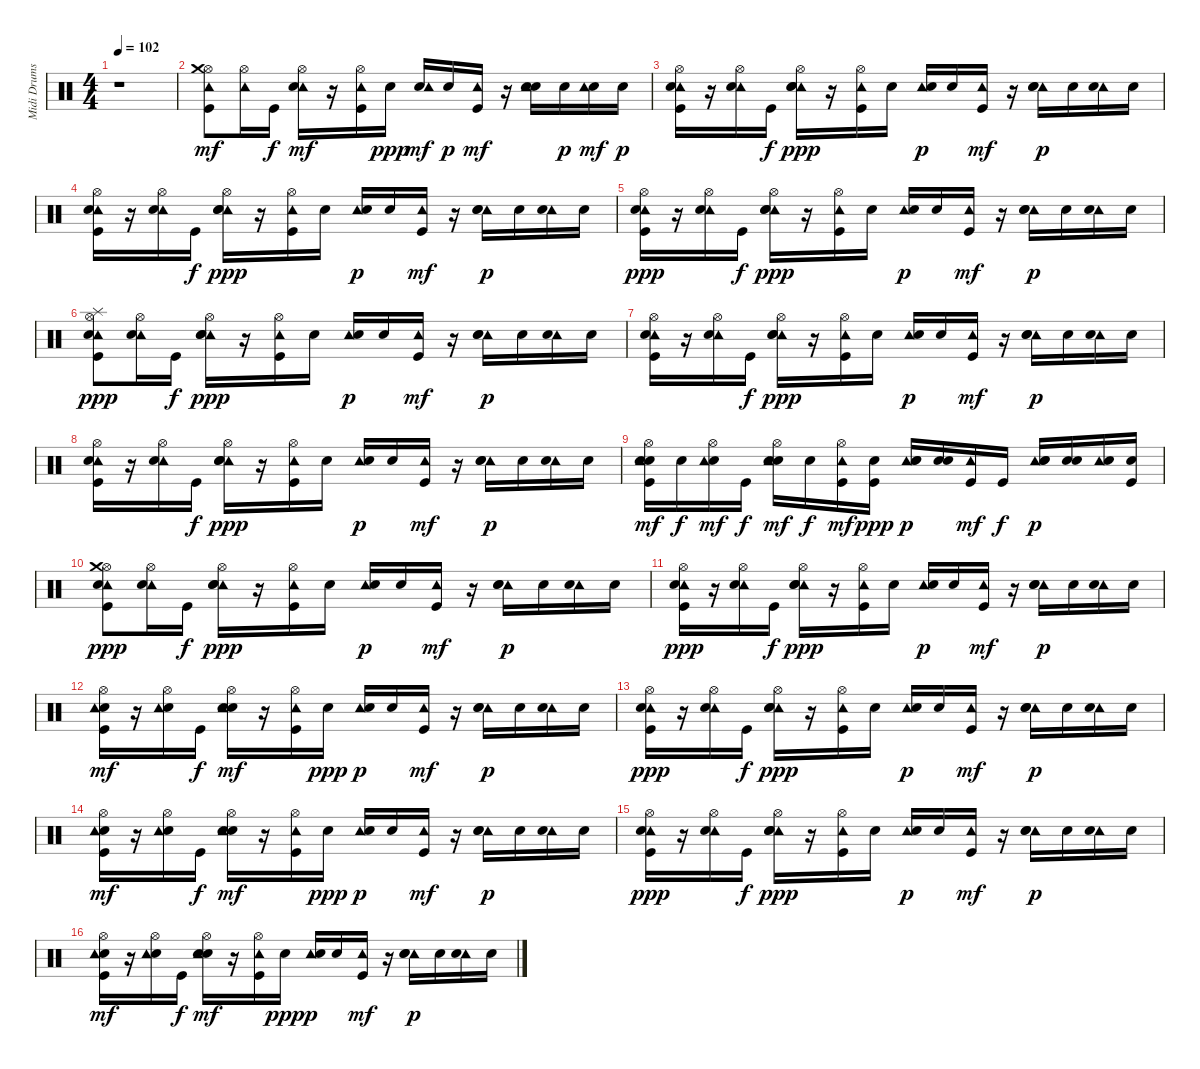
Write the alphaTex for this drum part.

\track ("Midi Drums" "Midi Drums") {instrument percussion}
\staff {score}
\articulation defaults
\ts (4 4)
\tempo 102
\clef neutral
\ks c
r.1{dy mf} |
("Hi-Hat (open)" "Tambourine (hit)" "Crash medium (hit)" "Kick (hit)").8 ("Hi-Hat (open)" "Tambourine (hit)").16 "Kick (hit)".16{dy f} ("Hi-Hat (open)" "Tambourine (hit)" "Snare (hit) 2").16{dy mf} r.16 ("Hi-Hat (open)" "Tambourine (hit)" "Kick (hit)").16 "Electric Snare (hit)".16{dy ppp} ("Electric Snare (hit)" "Tambourine (hit)").16{dy mf} "Electric Snare (hit)".16{dy p} ("Tambourine (hit)" "Kick (hit)").16{dy mf} r.16 ("Electric Snare (hit)" "Snare (hit) 2" "Tambourine (hit)").16 "Electric Snare (hit)".16{dy p} ("Electric Snare (hit)" "Tambourine (hit)").16{dy mf} "Electric Snare (hit)".16{dy p} |
("Tambourine (hit)" "Kick (hit)" "Hi-Hat (open)" "Electric Snare (hit)").16 r.16 ("Tambourine (hit)" "Hi-Hat (open)" "Electric Snare (hit)").16 "Kick (hit)".16{dy f} ("Tambourine (hit)" "Snare (hit) 2" "Hi-Hat (open)" "Electric Snare (hit)").16{dy ppp} r.16 ("Tambourine (hit)" "Kick (hit)" "Hi-Hat (open)").16 "Electric Snare (hit)".16 ("Tambourine (hit)" "Electric Snare (hit)").16{dy p} "Electric Snare (hit)".16 ("Tambourine (hit)" "Kick (hit)").16{dy mf} r.16 ("Tambourine (hit)" "Electric Snare (hit)" "Snare (hit) 2").16{dy p} "Electric Snare (hit)".16 ("Tambourine (hit)" "Electric Snare (hit)").16 "Electric Snare (hit)".16 |
("Tambourine (hit)" "Hi-Hat (open)" "Electric Snare (hit)" "Kick (hit)").16 r.16 ("Tambourine (hit)" "Hi-Hat (open)" "Electric Snare (hit)").16 "Kick (hit)".16{dy f} ("Tambourine (hit)" "Hi-Hat (open)" "Electric Snare (hit)" "Snare (hit) 2").16{dy ppp} r.16 ("Tambourine (hit)" "Hi-Hat (open)" "Kick (hit)").16 "Electric Snare (hit)".16 ("Tambourine (hit)" "Electric Snare (hit)").16{dy p} "Electric Snare (hit)".16 ("Tambourine (hit)" "Kick (hit)").16{dy mf} r.16 ("Tambourine (hit)" "Electric Snare (hit)" "Snare (hit) 2").16{dy p} "Electric Snare (hit)".16 ("Tambourine (hit)" "Electric Snare (hit)").16 "Electric Snare (hit)".16 |
("Tambourine (hit)" "Electric Snare (hit)" "Kick (hit)" "Hi-Hat (open)").16{dy ppp} r.16 ("Tambourine (hit)" "Electric Snare (hit)" "Hi-Hat (open)").16 "Kick (hit)".16{dy f} ("Tambourine (hit)" "Electric Snare (hit)" "Snare (hit) 2" "Hi-Hat (open)").16{dy ppp} r.16 ("Tambourine (hit)" "Kick (hit)" "Hi-Hat (open)").16 "Electric Snare (hit)".16 ("Tambourine (hit)" "Electric Snare (hit)").16{dy p} "Electric Snare (hit)".16 ("Tambourine (hit)" "Kick (hit)").16{dy mf} r.16 ("Tambourine (hit)" "Electric Snare (hit)" "Snare (hit) 2").16{dy p} "Electric Snare (hit)".16 ("Tambourine (hit)" "Electric Snare (hit)").16 "Electric Snare (hit)".16 |
("Splash (hit)" "Tambourine (hit)" "Kick (hit)" "Electric Snare (hit)" "Hi-Hat (open)").8{dy ppp} ("Tambourine (hit)" "Electric Snare (hit)" "Hi-Hat (open)").16 "Kick (hit)".16{dy f} ("Tambourine (hit)" "Snare (hit) 2" "Electric Snare (hit)" "Hi-Hat (open)").16{dy ppp} r.16 ("Tambourine (hit)" "Kick (hit)" "Hi-Hat (open)").16 "Electric Snare (hit)".16 ("Tambourine (hit)" "Electric Snare (hit)").16{dy p} "Electric Snare (hit)".16 ("Tambourine (hit)" "Kick (hit)").16{dy mf} r.16 ("Tambourine (hit)" "Electric Snare (hit)" "Snare (hit) 2").16{dy p} "Electric Snare (hit)".16 ("Tambourine (hit)" "Electric Snare (hit)").16 "Electric Snare (hit)".16 |
("Tambourine (hit)" "Hi-Hat (open)" "Electric Snare (hit)" "Kick (hit)").16 r.16 ("Tambourine (hit)" "Hi-Hat (open)" "Electric Snare (hit)").16 "Kick (hit)".16{dy f} ("Tambourine (hit)" "Hi-Hat (open)" "Electric Snare (hit)" "Snare (hit) 2").16{dy ppp} r.16 ("Tambourine (hit)" "Hi-Hat (open)" "Kick (hit)").16 "Electric Snare (hit)".16 ("Tambourine (hit)" "Electric Snare (hit)").16{dy p} "Electric Snare (hit)".16 ("Tambourine (hit)" "Kick (hit)").16{dy mf} r.16 ("Tambourine (hit)" "Electric Snare (hit)" "Snare (hit) 2").16{dy p} "Electric Snare (hit)".16 ("Tambourine (hit)" "Electric Snare (hit)").16 "Electric Snare (hit)".16 |
("Tambourine (hit)" "Kick (hit)" "Hi-Hat (open)" "Electric Snare (hit)").16 r.16 ("Tambourine (hit)" "Hi-Hat (open)" "Electric Snare (hit)").16 "Kick (hit)".16{dy f} ("Tambourine (hit)" "Snare (hit) 2" "Hi-Hat (open)" "Electric Snare (hit)").16{dy ppp} r.16 ("Tambourine (hit)" "Kick (hit)" "Hi-Hat (open)").16 "Electric Snare (hit)".16 ("Tambourine (hit)" "Electric Snare (hit)").16{dy p} "Electric Snare (hit)".16 ("Tambourine (hit)" "Kick (hit)").16{dy mf} r.16 ("Tambourine (hit)" "Electric Snare (hit)" "Snare (hit) 2").16{dy p} "Electric Snare (hit)".16 ("Tambourine (hit)" "Electric Snare (hit)").16 "Electric Snare (hit)".16 |
("Snare (hit) 2" "Kick (hit)" "Hi-Hat (open)" "Electric Snare (hit)" "Tambourine (hit)").16{dy mf} "Snare (hit) 2".16{dy f} ("Hi-Hat (open)" "Electric Snare (hit)" "Tambourine (hit)").16{dy mf} "Kick (hit)".16{dy f} ("Snare (hit) 2" "Hi-Hat (open)" "Electric Snare (hit)" "Tambourine (hit)").16{dy mf} "Snare (hit) 2".16{dy f} ("Kick (hit)" "Hi-Hat (open)" "Tambourine (hit)").16{dy mf} ("Kick (hit)" "Electric Snare (hit)").16{dy ppp} ("Tambourine (hit)" "Snare (hit) 2" "Electric Snare (hit)").16{dy p} ("Snare (hit) 2" "Electric Snare (hit)").16 ("Kick (hit)" "Tambourine (hit)").16{dy mf} "Kick (hit)".16{dy f} ("Tambourine (hit)" "Snare (hit) 2" "Electric Snare (hit)").16{dy p} ("Snare (hit) 2" "Electric Snare (hit)").16 ("Tambourine (hit)" "Electric Snare (hit)").16 ("Kick (hit)" "Electric Snare (hit)").16 |
("Tambourine (hit)" "Electric Snare (hit)" "Hi-Hat (open)" "Crash medium (hit)" "Kick (hit)").8{dy ppp} ("Tambourine (hit)" "Electric Snare (hit)" "Hi-Hat (open)").16 "Kick (hit)".16{dy f} ("Tambourine (hit)" "Electric Snare (hit)" "Hi-Hat (open)" "Snare (hit) 2").16{dy ppp} r.16 ("Tambourine (hit)" "Hi-Hat (open)" "Kick (hit)").16 "Electric Snare (hit)".16 ("Tambourine (hit)" "Electric Snare (hit)").16{dy p} "Electric Snare (hit)".16 ("Tambourine (hit)" "Kick (hit)").16{dy mf} r.16 ("Tambourine (hit)" "Electric Snare (hit)" "Snare (hit) 2").16{dy p} "Electric Snare (hit)".16 ("Tambourine (hit)" "Electric Snare (hit)").16 "Electric Snare (hit)".16 |
("Tambourine (hit)" "Electric Snare (hit)" "Kick (hit)" "Hi-Hat (open)").16{dy ppp} r.16 ("Tambourine (hit)" "Electric Snare (hit)" "Hi-Hat (open)").16 "Kick (hit)".16{dy f} ("Tambourine (hit)" "Electric Snare (hit)" "Snare (hit) 2" "Hi-Hat (open)").16{dy ppp} r.16 ("Tambourine (hit)" "Kick (hit)" "Hi-Hat (open)").16 "Electric Snare (hit)".16 ("Tambourine (hit)" "Electric Snare (hit)").16{dy p} "Electric Snare (hit)".16 ("Tambourine (hit)" "Kick (hit)").16{dy mf} r.16 ("Tambourine (hit)" "Electric Snare (hit)" "Snare (hit) 2").16{dy p} "Electric Snare (hit)".16 ("Tambourine (hit)" "Electric Snare (hit)").16 "Electric Snare (hit)".16 |
("Hi-Hat (open)" "Electric Snare (hit)" "Tambourine (hit)" "Kick (hit)").16{dy mf} r.16 ("Hi-Hat (open)" "Electric Snare (hit)" "Tambourine (hit)").16 "Kick (hit)".16{dy f} ("Hi-Hat (open)" "Electric Snare (hit)" "Tambourine (hit)" "Snare (hit) 2").16{dy mf} r.16 ("Hi-Hat (open)" "Tambourine (hit)" "Kick (hit)").16 "Electric Snare (hit)".16{dy ppp} ("Tambourine (hit)" "Electric Snare (hit)").16{dy p} "Electric Snare (hit)".16 ("Tambourine (hit)" "Kick (hit)").16{dy mf} r.16 ("Tambourine (hit)" "Electric Snare (hit)" "Snare (hit) 2").16{dy p} "Electric Snare (hit)".16 ("Tambourine (hit)" "Electric Snare (hit)").16 "Electric Snare (hit)".16 |
("Tambourine (hit)" "Electric Snare (hit)" "Hi-Hat (open)" "Kick (hit)").16{dy ppp} r.16 ("Tambourine (hit)" "Electric Snare (hit)" "Hi-Hat (open)").16 "Kick (hit)".16{dy f} ("Tambourine (hit)" "Electric Snare (hit)" "Hi-Hat (open)" "Snare (hit) 2").16{dy ppp} r.16 ("Tambourine (hit)" "Hi-Hat (open)" "Kick (hit)").16 "Electric Snare (hit)".16 ("Tambourine (hit)" "Electric Snare (hit)").16{dy p} "Electric Snare (hit)".16 ("Tambourine (hit)" "Kick (hit)").16{dy mf} r.16 ("Tambourine (hit)" "Electric Snare (hit)" "Snare (hit) 2").16{dy p} "Electric Snare (hit)".16 ("Tambourine (hit)" "Electric Snare (hit)").16 "Electric Snare (hit)".16 |
("Hi-Hat (open)" "Kick (hit)" "Electric Snare (hit)" "Tambourine (hit)").16{dy mf} r.16 ("Hi-Hat (open)" "Electric Snare (hit)" "Tambourine (hit)").16 "Kick (hit)".16{dy f} ("Hi-Hat (open)" "Snare (hit) 2" "Electric Snare (hit)" "Tambourine (hit)").16{dy mf} r.16 ("Hi-Hat (open)" "Kick (hit)" "Tambourine (hit)").16 "Electric Snare (hit)".16{dy ppp} ("Tambourine (hit)" "Electric Snare (hit)").16{dy p} "Electric Snare (hit)".16 ("Kick (hit)" "Tambourine (hit)").16{dy mf} r.16 ("Tambourine (hit)" "Electric Snare (hit)" "Snare (hit) 2").16{dy p} "Electric Snare (hit)".16 ("Tambourine (hit)" "Electric Snare (hit)").16 "Electric Snare (hit)".16 |
("Tambourine (hit)" "Electric Snare (hit)" "Hi-Hat (open)" "Kick (hit)").16{dy ppp} r.16 ("Tambourine (hit)" "Electric Snare (hit)" "Hi-Hat (open)").16 "Kick (hit)".16{dy f} ("Tambourine (hit)" "Electric Snare (hit)" "Hi-Hat (open)" "Snare (hit) 2").16{dy ppp} r.16 ("Tambourine (hit)" "Hi-Hat (open)" "Kick (hit)").16 "Electric Snare (hit)".16 ("Tambourine (hit)" "Electric Snare (hit)").16{dy p} "Electric Snare (hit)".16 ("Tambourine (hit)" "Kick (hit)").16{dy mf} r.16 ("Tambourine (hit)" "Electric Snare (hit)" "Snare (hit) 2").16{dy p} "Electric Snare (hit)".16 ("Tambourine (hit)" "Electric Snare (hit)").16 "Electric Snare (hit)".16 |
("Kick (hit)" "Electric Snare (hit)" "Hi-Hat (open)" "Tambourine (hit)").16{dy mf} r.16 ("Electric Snare (hit)" "Hi-Hat (open)" "Tambourine (hit)").16 "Kick (hit)".16{dy f} ("Snare (hit) 2" "Electric Snare (hit)" "Hi-Hat (open)" "Tambourine (hit)").16{dy mf} r.16 ("Kick (hit)" "Hi-Hat (open)" "Tambourine (hit)").16 "Electric Snare (hit)".16{dy ppp} ("Tambourine (hit)" "Electric Snare (hit)").16{dy p} "Electric Snare (hit)".16 ("Kick (hit)" "Tambourine (hit)").16{dy mf} r.16 ("Tambourine (hit)" "Electric Snare (hit)" "Snare (hit) 2").16{dy p} "Electric Snare (hit)".16 ("Tambourine (hit)" "Electric Snare (hit)").16 "Electric Snare (hit)".16
